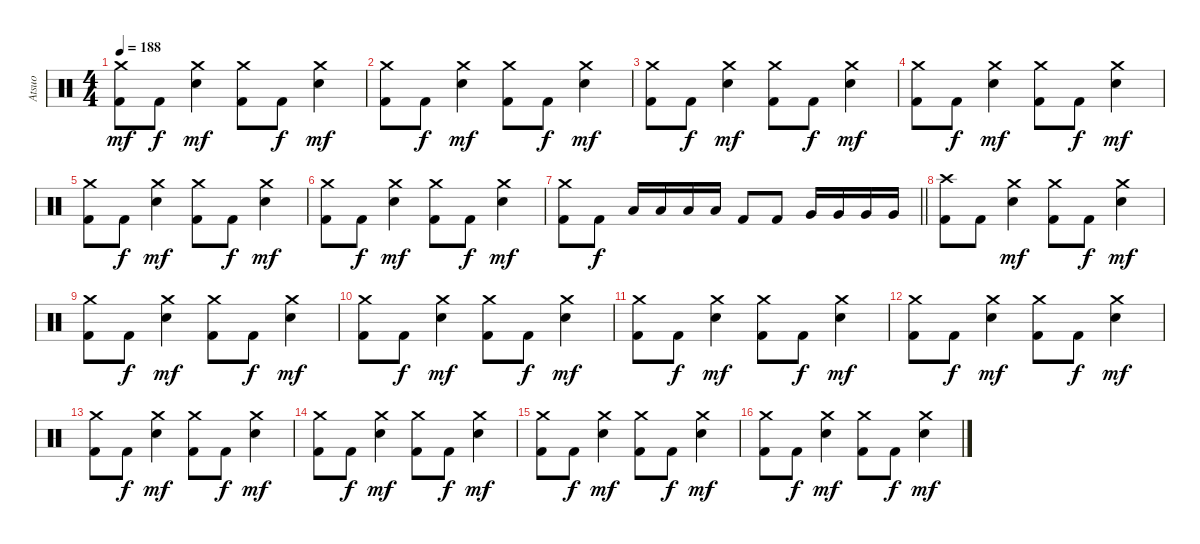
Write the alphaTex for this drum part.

\track ("Atsuo" "Atsuo") {instrument percussion}
\staff {score}
\articulation defaults
\ts (4 4)
\tempo 188
\clef neutral
\ks c
("Crash medium (hit)" "Kick (hit) 2").8{dy mf} "Kick (hit) 2".8{dy f} ("Crash medium (hit)" "Electric Snare (hit)").4{dy mf} ("Crash medium (hit)" "Kick (hit) 2").8 "Kick (hit) 2".8{dy f} ("Crash medium (hit)" "Electric Snare (hit)").4{dy mf} |
("Crash medium (hit)" "Kick (hit) 2").8 "Kick (hit) 2".8{dy f} ("Crash medium (hit)" "Electric Snare (hit)").4{dy mf} ("Crash medium (hit)" "Kick (hit) 2").8 "Kick (hit) 2".8{dy f} ("Crash medium (hit)" "Electric Snare (hit)").4{dy mf} |
("Crash medium (hit)" "Kick (hit) 2").8 "Kick (hit) 2".8{dy f} ("Crash medium (hit)" "Electric Snare (hit)").4{dy mf} ("Crash medium (hit)" "Kick (hit) 2").8 "Kick (hit) 2".8{dy f} ("Crash medium (hit)" "Electric Snare (hit)").4{dy mf} |
("Crash medium (hit)" "Kick (hit) 2").8 "Kick (hit) 2".8{dy f} ("Crash medium (hit)" "Electric Snare (hit)").4{dy mf} ("Crash medium (hit)" "Kick (hit) 2").8 "Kick (hit) 2".8{dy f} ("Crash medium (hit)" "Electric Snare (hit)").4{dy mf} |
("Crash medium (hit)" "Kick (hit) 2").8 "Kick (hit) 2".8{dy f} ("Crash medium (hit)" "Electric Snare (hit)").4{dy mf} ("Crash medium (hit)" "Kick (hit) 2").8 "Kick (hit) 2".8{dy f} ("Crash medium (hit)" "Electric Snare (hit)").4{dy mf} |
("Crash medium (hit)" "Kick (hit) 2").8 "Kick (hit) 2".8{dy f} ("Crash medium (hit)" "Electric Snare (hit)").4{dy mf} ("Crash medium (hit)" "Kick (hit) 2").8 "Kick (hit) 2".8{dy f} ("Crash medium (hit)" "Electric Snare (hit)").4{dy mf} |
\barLineRight lightlight
("Crash medium (hit)" "Kick (hit) 2").8 "Kick (hit) 2".8{dy f} "Low Tom (hit)".16 "Low Tom (hit)".16 "Low Tom (hit)".16 "Low Tom (hit)".16 "Kick (hit) 2".8 "Kick (hit) 2".8 "Very Low Tom (hit)".16 "Very Low Tom (hit)".16 "Very Low Tom (hit)".16 "Very Low Tom (hit)".16 |
("Crash high (hit)" "Kick (hit) 2").8 "Kick (hit) 2".8 ("Crash medium (hit)" "Electric Snare (hit)").4{dy mf} ("Crash medium (hit)" "Kick (hit) 2").8 "Kick (hit) 2".8{dy f} ("Crash medium (hit)" "Electric Snare (hit)").4{dy mf} |
("Crash medium (hit)" "Kick (hit) 2").8 "Kick (hit) 2".8{dy f} ("Crash medium (hit)" "Electric Snare (hit)").4{dy mf} ("Crash medium (hit)" "Kick (hit) 2").8 "Kick (hit) 2".8{dy f} ("Crash medium (hit)" "Electric Snare (hit)").4{dy mf} |
("Crash medium (hit)" "Kick (hit) 2").8 "Kick (hit) 2".8{dy f} ("Crash medium (hit)" "Electric Snare (hit)").4{dy mf} ("Crash medium (hit)" "Kick (hit) 2").8 "Kick (hit) 2".8{dy f} ("Crash medium (hit)" "Electric Snare (hit)").4{dy mf} |
("Crash medium (hit)" "Kick (hit) 2").8 "Kick (hit) 2".8{dy f} ("Crash medium (hit)" "Electric Snare (hit)").4{dy mf} ("Crash medium (hit)" "Kick (hit) 2").8 "Kick (hit) 2".8{dy f} ("Crash medium (hit)" "Electric Snare (hit)").4{dy mf} |
("Crash medium (hit)" "Kick (hit) 2").8 "Kick (hit) 2".8{dy f} ("Crash medium (hit)" "Electric Snare (hit)").4{dy mf} ("Crash medium (hit)" "Kick (hit) 2").8 "Kick (hit) 2".8{dy f} ("Crash medium (hit)" "Electric Snare (hit)").4{dy mf} |
("Crash medium (hit)" "Kick (hit) 2").8 "Kick (hit) 2".8{dy f} ("Crash medium (hit)" "Electric Snare (hit)").4{dy mf} ("Crash medium (hit)" "Kick (hit) 2").8 "Kick (hit) 2".8{dy f} ("Crash medium (hit)" "Electric Snare (hit)").4{dy mf} |
("Crash medium (hit)" "Kick (hit) 2").8 "Kick (hit) 2".8{dy f} ("Crash medium (hit)" "Electric Snare (hit)").4{dy mf} ("Crash medium (hit)" "Kick (hit) 2").8 "Kick (hit) 2".8{dy f} ("Crash medium (hit)" "Electric Snare (hit)").4{dy mf} |
("Crash medium (hit)" "Kick (hit) 2").8 "Kick (hit) 2".8{dy f} ("Crash medium (hit)" "Electric Snare (hit)").4{dy mf} ("Crash medium (hit)" "Kick (hit) 2").8 "Kick (hit) 2".8{dy f} ("Crash medium (hit)" "Electric Snare (hit)").4{dy mf} |
("Crash medium (hit)" "Kick (hit) 2").8 "Kick (hit) 2".8{dy f} ("Crash medium (hit)" "Electric Snare (hit)").4{dy mf} ("Crash medium (hit)" "Kick (hit) 2").8 "Kick (hit) 2".8{dy f} ("Crash medium (hit)" "Electric Snare (hit)").4{dy mf}
